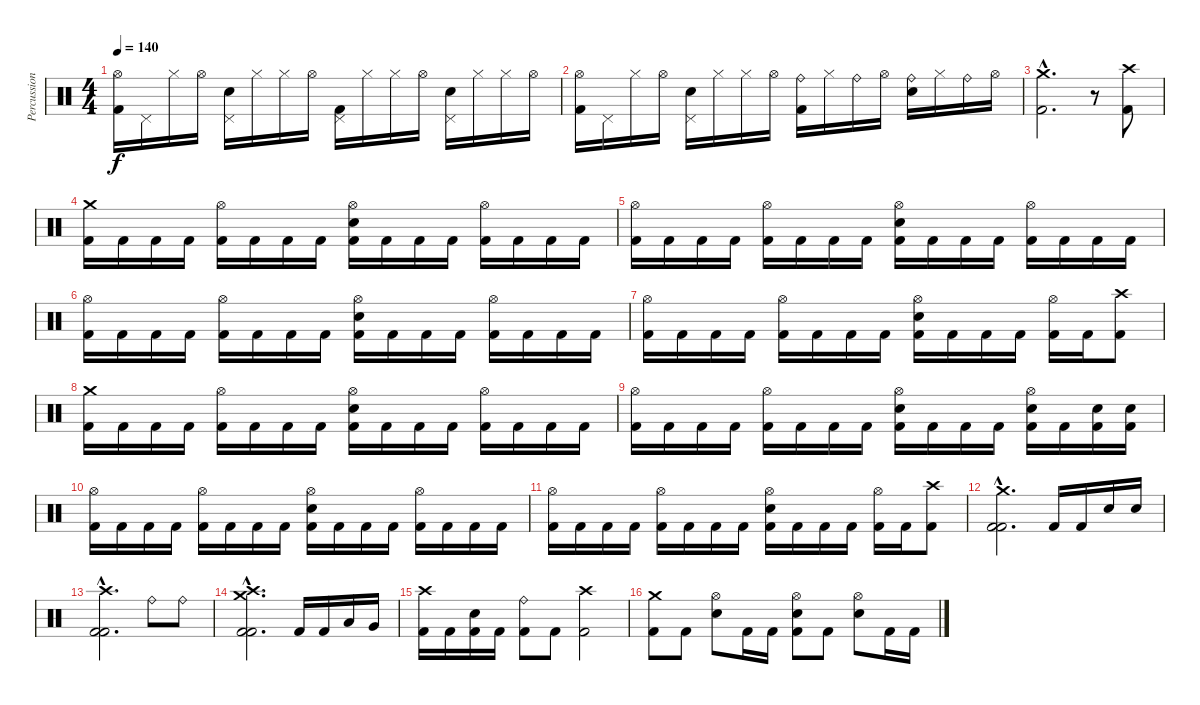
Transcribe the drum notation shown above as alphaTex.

\track ("Percussion" "Percussion") {instrument percussion}
\staff {score}
\articulation defaults
\ts (4 4)
\tempo 140
\clef neutral
\ks c
("Hi-Hat (open)" "Kick (hit) 2").16{dy f} "Pedal Hi-Hat (hit)".16 "Hi-Hat (closed)".16 "Hi-Hat (open)".16 ("Pedal Hi-Hat (hit)" "Electric Snare (hit)").16 "Hi-Hat (closed)".16 "Hi-Hat (closed)".16 "Hi-Hat (open)".16 ("Pedal Hi-Hat (hit)" "Kick (hit) 2").16 "Hi-Hat (closed)".16 "Hi-Hat (closed)".16 "Hi-Hat (open)".16 ("Pedal Hi-Hat (hit)" "Electric Snare (hit)").16 "Hi-Hat (closed)".16 "Hi-Hat (closed)".16 "Hi-Hat (open)".16 |
("Hi-Hat (open)" "Kick (hit) 2").16 "Pedal Hi-Hat (hit)".16 "Hi-Hat (closed)".16 "Hi-Hat (open)".16 ("Pedal Hi-Hat (hit)" "Electric Snare (hit)").16 "Hi-Hat (closed)".16 "Hi-Hat (closed)".16 "Hi-Hat (open)".16 ("Ride (bell)" "Kick (hit) 2").16 "Hi-Hat (closed)".16 "Ride (bell)".16 "Hi-Hat (open)".16 ("Ride (bell)" "Electric Snare (hit)").16 "Hi-Hat (closed)".16 "Ride (bell)".16 "Hi-Hat (open)".16 |
("Crash medium (hit)"{hac} "Kick (hit) 2"{hac}).2{d} r.8 ("Crash high (hit)" "Kick (hit) 2").8 |
("Crash medium (hit)" "Kick (hit) 2").16 "Kick (hit) 2".16 "Kick (hit) 2".16 "Kick (hit) 2".16 ("Hi-Hat (open)" "Kick (hit) 2").16 "Kick (hit) 2".16 "Kick (hit) 2".16 "Kick (hit) 2".16 ("Hi-Hat (open)" "Electric Snare (hit)" "Kick (hit) 2").16 "Kick (hit) 2".16 "Kick (hit) 2".16 "Kick (hit) 2".16 ("Hi-Hat (open)" "Kick (hit) 2").16 "Kick (hit) 2".16 "Kick (hit) 2".16 "Kick (hit) 2".16 |
("Hi-Hat (open)" "Kick (hit) 2").16 "Kick (hit) 2".16 "Kick (hit) 2".16 "Kick (hit) 2".16 ("Hi-Hat (open)" "Kick (hit) 2").16 "Kick (hit) 2".16 "Kick (hit) 2".16 "Kick (hit) 2".16 ("Hi-Hat (open)" "Electric Snare (hit)" "Kick (hit) 2").16 "Kick (hit) 2".16 "Kick (hit) 2".16 "Kick (hit) 2".16 ("Hi-Hat (open)" "Kick (hit) 2").16 "Kick (hit) 2".16 "Kick (hit) 2".16 "Kick (hit) 2".16 |
("Hi-Hat (open)" "Kick (hit) 2").16 "Kick (hit) 2".16 "Kick (hit) 2".16 "Kick (hit) 2".16 ("Hi-Hat (open)" "Kick (hit) 2").16 "Kick (hit) 2".16 "Kick (hit) 2".16 "Kick (hit) 2".16 ("Hi-Hat (open)" "Electric Snare (hit)" "Kick (hit) 2").16 "Kick (hit) 2".16 "Kick (hit) 2".16 "Kick (hit) 2".16 ("Hi-Hat (open)" "Kick (hit) 2").16 "Kick (hit) 2".16 "Kick (hit) 2".16 "Kick (hit) 2".16 |
("Hi-Hat (open)" "Kick (hit) 2").16 "Kick (hit) 2".16 "Kick (hit) 2".16 "Kick (hit) 2".16 ("Hi-Hat (open)" "Kick (hit) 2").16 "Kick (hit) 2".16 "Kick (hit) 2".16 "Kick (hit) 2".16 ("Hi-Hat (open)" "Electric Snare (hit)" "Kick (hit) 2").16 "Kick (hit) 2".16 "Kick (hit) 2".16 "Kick (hit) 2".16 ("Hi-Hat (open)" "Kick (hit) 2").16 "Kick (hit) 2".16 ("Crash high (hit)" "Kick (hit) 2").8 |
("Crash medium (hit)" "Kick (hit) 2").16 "Kick (hit) 2".16 "Kick (hit) 2".16 "Kick (hit) 2".16 ("Hi-Hat (open)" "Kick (hit) 2").16 "Kick (hit) 2".16 "Kick (hit) 2".16 "Kick (hit) 2".16 ("Hi-Hat (open)" "Electric Snare (hit)" "Kick (hit) 2").16 "Kick (hit) 2".16 "Kick (hit) 2".16 "Kick (hit) 2".16 ("Hi-Hat (open)" "Kick (hit) 2").16 "Kick (hit) 2".16 "Kick (hit) 2".16 "Kick (hit) 2".16 |
("Hi-Hat (open)" "Kick (hit) 2").16 "Kick (hit) 2".16 "Kick (hit) 2".16 "Kick (hit) 2".16 ("Hi-Hat (open)" "Kick (hit) 2").16 "Kick (hit) 2".16 "Kick (hit) 2".16 "Kick (hit) 2".16 ("Hi-Hat (open)" "Electric Snare (hit)" "Kick (hit) 2").16 "Kick (hit) 2".16 "Kick (hit) 2".16 "Kick (hit) 2".16 ("Hi-Hat (open)" "Electric Snare (hit)" "Kick (hit) 2").16 "Kick (hit) 2".16 ("Electric Snare (hit)" "Kick (hit) 2").16 ("Electric Snare (hit)" "Kick (hit) 2").16 |
("Hi-Hat (open)" "Kick (hit) 2").16 "Kick (hit) 2".16 "Kick (hit) 2".16 "Kick (hit) 2".16 ("Hi-Hat (open)" "Kick (hit) 2").16 "Kick (hit) 2".16 "Kick (hit) 2".16 "Kick (hit) 2".16 ("Hi-Hat (open)" "Electric Snare (hit)" "Kick (hit) 2").16 "Kick (hit) 2".16 "Kick (hit) 2".16 "Kick (hit) 2".16 ("Hi-Hat (open)" "Kick (hit) 2").16 "Kick (hit) 2".16 "Kick (hit) 2".16 "Kick (hit) 2".16 |
("Hi-Hat (open)" "Kick (hit) 2").16 "Kick (hit) 2".16 "Kick (hit) 2".16 "Kick (hit) 2".16 ("Hi-Hat (open)" "Kick (hit) 2").16 "Kick (hit) 2".16 "Kick (hit) 2".16 "Kick (hit) 2".16 ("Hi-Hat (open)" "Electric Snare (hit)" "Kick (hit) 2").16 "Kick (hit) 2".16 "Kick (hit) 2".16 "Kick (hit) 2".16 ("Hi-Hat (open)" "Kick (hit) 2").16 "Kick (hit) 2".16 ("Crash high (hit)" "Kick (hit) 2").8 |
("Crash medium (hit)"{hac} "Kick (hit) 2"{hac} "Kick (hit) 2"{hac}).2{d} "Kick (hit) 2".16 "Kick (hit) 2".16 "Electric Snare (hit)".16 "Electric Snare (hit)".16 |
("Crash high (hit)"{hac} "Kick (hit) 2"{hac} "Kick (hit) 2"{hac}).2{d} "Ride (bell)".8 "Ride (bell)".8 |
("Crash medium (hit)"{hac} "Crash high (hit)"{hac} "Kick (hit) 2"{hac} "Kick (hit) 2"{hac}).2{d} "Kick (hit) 2".16 "Kick (hit) 2".16 "Low Tom (hit)".16 "Very Low Tom (hit)".16 |
("Crash high (hit)" "Kick (hit) 2").16 "Kick (hit) 2".16 ("Electric Snare (hit)" "Kick (hit) 2").16 "Kick (hit) 2".16 ("Ride (bell)" "Kick (hit) 2").8 "Kick (hit) 2".8 ("Crash high (hit)" "Kick (hit) 2").2 |
("Crash medium (hit)" "Kick (hit) 2").8 "Kick (hit) 2".8 ("Hi-Hat (open)" "Electric Snare (hit)").8 "Kick (hit) 2".16 "Kick (hit) 2".16 ("Hi-Hat (open)" "Electric Snare (hit)" "Kick (hit) 2").8 "Kick (hit) 2".8 ("Hi-Hat (open)" "Electric Snare (hit)").8 "Kick (hit) 2".16 "Kick (hit) 2".16
